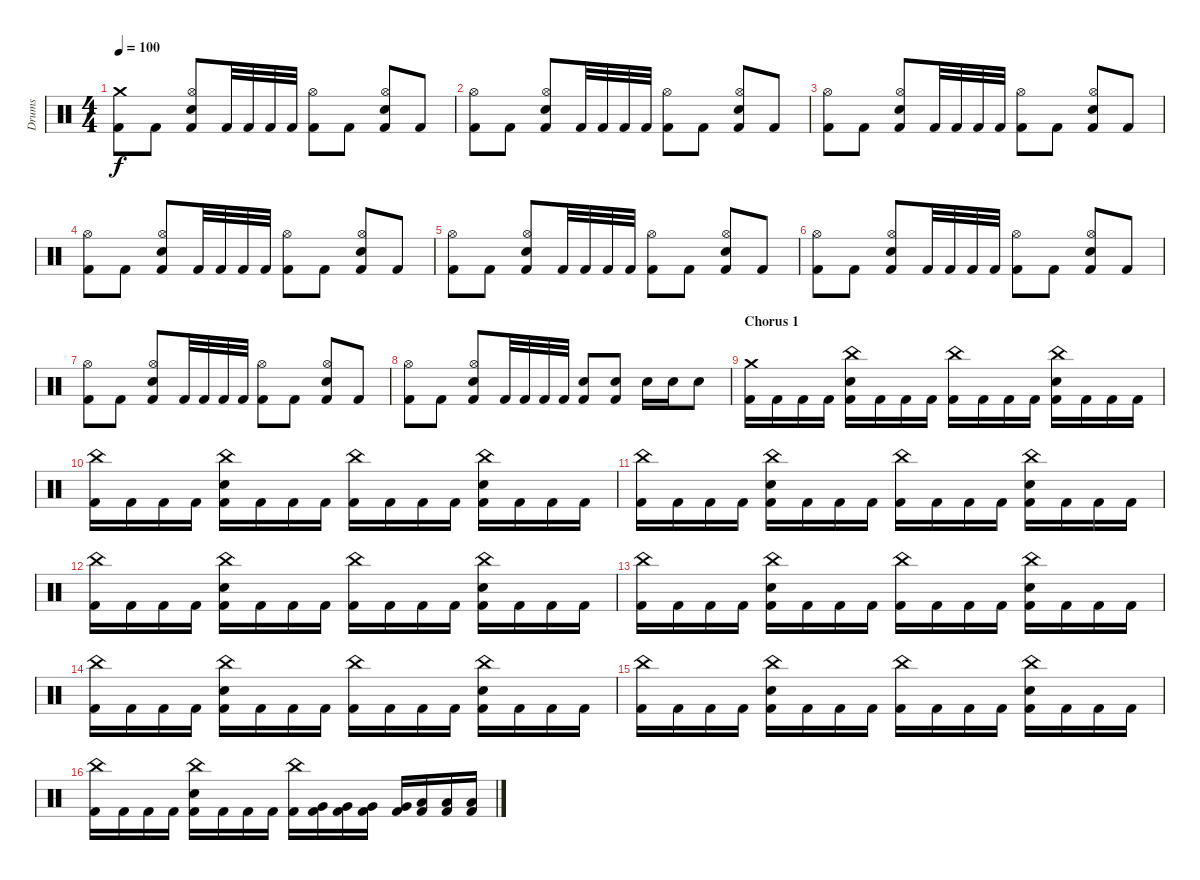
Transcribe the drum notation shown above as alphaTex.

\track ("Drums" "Drums") {instrument percussion}
\staff {score}
\articulation defaults
\ts (4 4)
\tempo 100
\clef neutral
\ks c
("Crash medium (hit)" "Kick (hit) 2").8{dy f} "Kick (hit) 2".8 ("Hi-Hat (open)" "Snare (hit) 2" "Kick (hit) 2").8 "Kick (hit) 2".32 "Kick (hit) 2".32 "Kick (hit) 2".32 "Kick (hit) 2".32 ("Hi-Hat (open)" "Kick (hit) 2").8 "Kick (hit) 2".8 ("Hi-Hat (open)" "Snare (hit) 2" "Kick (hit) 2").8 "Kick (hit) 2".8 |
("Hi-Hat (open)" "Kick (hit) 2").8 "Kick (hit) 2".8 ("Hi-Hat (open)" "Snare (hit) 2" "Kick (hit) 2").8 "Kick (hit) 2".32 "Kick (hit) 2".32 "Kick (hit) 2".32 "Kick (hit) 2".32 ("Hi-Hat (open)" "Kick (hit) 2").8 "Kick (hit) 2".8 ("Hi-Hat (open)" "Snare (hit) 2" "Kick (hit) 2").8 "Kick (hit) 2".8 |
("Hi-Hat (open)" "Kick (hit) 2").8 "Kick (hit) 2".8 ("Hi-Hat (open)" "Snare (hit) 2" "Kick (hit) 2").8 "Kick (hit) 2".32 "Kick (hit) 2".32 "Kick (hit) 2".32 "Kick (hit) 2".32 ("Hi-Hat (open)" "Kick (hit) 2").8 "Kick (hit) 2".8 ("Hi-Hat (open)" "Snare (hit) 2" "Kick (hit) 2").8 "Kick (hit) 2".8 |
("Hi-Hat (open)" "Kick (hit) 2").8 "Kick (hit) 2".8 ("Hi-Hat (open)" "Snare (hit) 2" "Kick (hit) 2").8 "Kick (hit) 2".32 "Kick (hit) 2".32 "Kick (hit) 2".32 "Kick (hit) 2".32 ("Hi-Hat (open)" "Kick (hit) 2").8 "Kick (hit) 2".8 ("Hi-Hat (open)" "Snare (hit) 2" "Kick (hit) 2").8 "Kick (hit) 2".8 |
("Hi-Hat (open)" "Kick (hit) 2").8 "Kick (hit) 2".8 ("Hi-Hat (open)" "Snare (hit) 2" "Kick (hit) 2").8 "Kick (hit) 2".32 "Kick (hit) 2".32 "Kick (hit) 2".32 "Kick (hit) 2".32 ("Hi-Hat (open)" "Kick (hit) 2").8 "Kick (hit) 2".8 ("Hi-Hat (open)" "Snare (hit) 2" "Kick (hit) 2").8 "Kick (hit) 2".8 |
("Hi-Hat (open)" "Kick (hit) 2").8 "Kick (hit) 2".8 ("Hi-Hat (open)" "Snare (hit) 2" "Kick (hit) 2").8 "Kick (hit) 2".32 "Kick (hit) 2".32 "Kick (hit) 2".32 "Kick (hit) 2".32 ("Hi-Hat (open)" "Kick (hit) 2").8 "Kick (hit) 2".8 ("Hi-Hat (open)" "Snare (hit) 2" "Kick (hit) 2").8 "Kick (hit) 2".8 |
("Hi-Hat (open)" "Kick (hit) 2").8 "Kick (hit) 2".8 ("Hi-Hat (open)" "Snare (hit) 2" "Kick (hit) 2").8 "Kick (hit) 2".32 "Kick (hit) 2".32 "Kick (hit) 2".32 "Kick (hit) 2".32 ("Hi-Hat (open)" "Kick (hit) 2").8 "Kick (hit) 2".8 ("Hi-Hat (open)" "Snare (hit) 2" "Kick (hit) 2").8 "Kick (hit) 2".8 |
("Hi-Hat (open)" "Kick (hit) 2").8 "Kick (hit) 2".8 ("Hi-Hat (open)" "Snare (hit) 2" "Kick (hit) 2").8 "Kick (hit) 2".32 "Kick (hit) 2".32 "Kick (hit) 2".32 "Kick (hit) 2".32 ("Snare (hit) 2" "Kick (hit) 2").8 ("Snare (hit) 2" "Kick (hit) 2").8 "Snare (hit) 2".16 "Snare (hit) 2".16 "Snare (hit) 2".8 |
\section ("" "Chorus 1")
("Crash medium (hit)" "Kick (hit) 2").16 "Kick (hit) 2".16 "Kick (hit) 2".16 "Kick (hit) 2".16 ("China (hit)" "Snare (hit) 2" "Kick (hit) 2").16 "Kick (hit) 2".16 "Kick (hit) 2".16 "Kick (hit) 2".16 ("China (hit)" "Kick (hit) 2").16 "Kick (hit) 2".16 "Kick (hit) 2".16 "Kick (hit) 2".16 ("China (hit)" "Snare (hit) 2" "Kick (hit) 2").16 "Kick (hit) 2".16 "Kick (hit) 2".16 "Kick (hit) 2".16 |
("China (hit)" "Kick (hit) 2").16 "Kick (hit) 2".16 "Kick (hit) 2".16 "Kick (hit) 2".16 ("China (hit)" "Snare (hit) 2" "Kick (hit) 2").16 "Kick (hit) 2".16 "Kick (hit) 2".16 "Kick (hit) 2".16 ("China (hit)" "Kick (hit) 2").16 "Kick (hit) 2".16 "Kick (hit) 2".16 "Kick (hit) 2".16 ("China (hit)" "Snare (hit) 2" "Kick (hit) 2").16 "Kick (hit) 2".16 "Kick (hit) 2".16 "Kick (hit) 2".16 |
("China (hit)" "Kick (hit) 2").16 "Kick (hit) 2".16 "Kick (hit) 2".16 "Kick (hit) 2".16 ("China (hit)" "Snare (hit) 2" "Kick (hit) 2").16 "Kick (hit) 2".16 "Kick (hit) 2".16 "Kick (hit) 2".16 ("China (hit)" "Kick (hit) 2").16 "Kick (hit) 2".16 "Kick (hit) 2".16 "Kick (hit) 2".16 ("China (hit)" "Snare (hit) 2" "Kick (hit) 2").16 "Kick (hit) 2".16 "Kick (hit) 2".16 "Kick (hit) 2".16 |
("China (hit)" "Kick (hit) 2").16 "Kick (hit) 2".16 "Kick (hit) 2".16 "Kick (hit) 2".16 ("China (hit)" "Snare (hit) 2" "Kick (hit) 2").16 "Kick (hit) 2".16 "Kick (hit) 2".16 "Kick (hit) 2".16 ("China (hit)" "Kick (hit) 2").16 "Kick (hit) 2".16 "Kick (hit) 2".16 "Kick (hit) 2".16 ("China (hit)" "Snare (hit) 2" "Kick (hit) 2").16 "Kick (hit) 2".16 "Kick (hit) 2".16 "Kick (hit) 2".16 |
("China (hit)" "Kick (hit) 2").16 "Kick (hit) 2".16 "Kick (hit) 2".16 "Kick (hit) 2".16 ("China (hit)" "Snare (hit) 2" "Kick (hit) 2").16 "Kick (hit) 2".16 "Kick (hit) 2".16 "Kick (hit) 2".16 ("China (hit)" "Kick (hit) 2").16 "Kick (hit) 2".16 "Kick (hit) 2".16 "Kick (hit) 2".16 ("China (hit)" "Snare (hit) 2" "Kick (hit) 2").16 "Kick (hit) 2".16 "Kick (hit) 2".16 "Kick (hit) 2".16 |
("China (hit)" "Kick (hit) 2").16 "Kick (hit) 2".16 "Kick (hit) 2".16 "Kick (hit) 2".16 ("China (hit)" "Snare (hit) 2" "Kick (hit) 2").16 "Kick (hit) 2".16 "Kick (hit) 2".16 "Kick (hit) 2".16 ("China (hit)" "Kick (hit) 2").16 "Kick (hit) 2".16 "Kick (hit) 2".16 "Kick (hit) 2".16 ("China (hit)" "Snare (hit) 2" "Kick (hit) 2").16 "Kick (hit) 2".16 "Kick (hit) 2".16 "Kick (hit) 2".16 |
("China (hit)" "Kick (hit) 2").16 "Kick (hit) 2".16 "Kick (hit) 2".16 "Kick (hit) 2".16 ("China (hit)" "Snare (hit) 2" "Kick (hit) 2").16 "Kick (hit) 2".16 "Kick (hit) 2".16 "Kick (hit) 2".16 ("China (hit)" "Kick (hit) 2").16 "Kick (hit) 2".16 "Kick (hit) 2".16 "Kick (hit) 2".16 ("China (hit)" "Snare (hit) 2" "Kick (hit) 2").16 "Kick (hit) 2".16 "Kick (hit) 2".16 "Kick (hit) 2".16 |
("China (hit)" "Kick (hit) 2").16 "Kick (hit) 2".16 "Kick (hit) 2".16 "Kick (hit) 2".16 ("China (hit)" "Snare (hit) 2" "Kick (hit) 2").16 "Kick (hit) 2".16 "Kick (hit) 2".16 "Kick (hit) 2".16 ("China (hit)" "Kick (hit) 2").16 ("Very Low Tom (hit)" "Kick (hit) 2").16 ("Very Low Tom (hit)" "Kick (hit) 2").16 ("Very Low Tom (hit)" "Kick (hit) 2").16 ("Very Low Tom (hit)" "Kick (hit) 2").16 ("Low Floor Tom (hit)" "Kick (hit) 2").16 ("Low Floor Tom (hit)" "Kick (hit) 2").16 ("Low Floor Tom (hit)" "Kick (hit) 2").16
